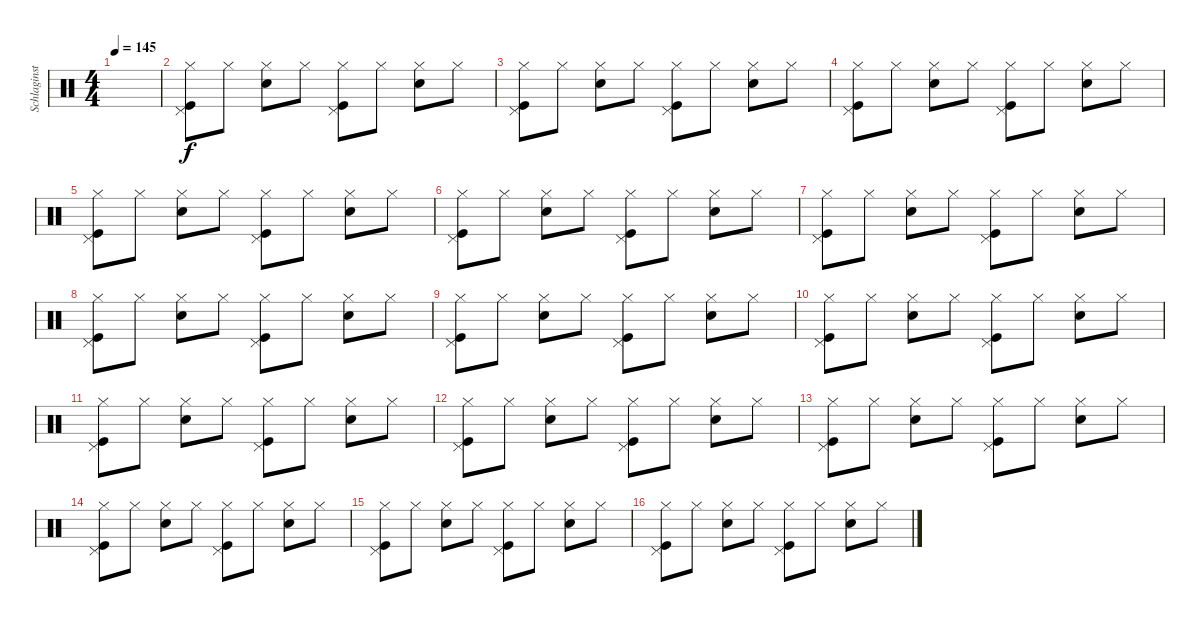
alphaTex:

\track ("Schlaginstrumente - Auswahl" "Schlaginst") {instrument percussion}
\staff {score}
\articulation defaults
\ts (4 4)
\tempo 145
\clef neutral
\ks c
|
("Kick (hit)" "Pedal Hi-Hat (hit)" "Hi-Hat (closed)").8 "Hi-Hat (closed)".8 ("Snare (hit) 2" "Hi-Hat (closed)").8 "Hi-Hat (closed)".8 ("Kick (hit)" "Pedal Hi-Hat (hit)" "Hi-Hat (closed)").8 "Hi-Hat (closed)".8 ("Snare (hit) 2" "Hi-Hat (closed)").8 "Hi-Hat (closed)".8 |
("Kick (hit)" "Pedal Hi-Hat (hit)" "Hi-Hat (closed)").8 "Hi-Hat (closed)".8 ("Snare (hit) 2" "Hi-Hat (closed)").8 "Hi-Hat (closed)".8 ("Kick (hit)" "Pedal Hi-Hat (hit)" "Hi-Hat (closed)").8 "Hi-Hat (closed)".8 ("Snare (hit) 2" "Hi-Hat (closed)").8 "Hi-Hat (closed)".8 |
("Kick (hit)" "Pedal Hi-Hat (hit)" "Hi-Hat (closed)").8 "Hi-Hat (closed)".8 ("Snare (hit) 2" "Hi-Hat (closed)").8 "Hi-Hat (closed)".8 ("Kick (hit)" "Pedal Hi-Hat (hit)" "Hi-Hat (closed)").8 "Hi-Hat (closed)".8 ("Snare (hit) 2" "Hi-Hat (closed)").8 "Hi-Hat (closed)".8 |
("Kick (hit)" "Pedal Hi-Hat (hit)" "Hi-Hat (closed)").8 "Hi-Hat (closed)".8 ("Snare (hit) 2" "Hi-Hat (closed)").8 "Hi-Hat (closed)".8 ("Kick (hit)" "Pedal Hi-Hat (hit)" "Hi-Hat (closed)").8 "Hi-Hat (closed)".8 ("Snare (hit) 2" "Hi-Hat (closed)").8 "Hi-Hat (closed)".8 |
("Kick (hit)" "Pedal Hi-Hat (hit)" "Hi-Hat (closed)").8 "Hi-Hat (closed)".8 ("Snare (hit) 2" "Hi-Hat (closed)").8 "Hi-Hat (closed)".8 ("Kick (hit)" "Pedal Hi-Hat (hit)" "Hi-Hat (closed)").8 "Hi-Hat (closed)".8 ("Snare (hit) 2" "Hi-Hat (closed)").8 "Hi-Hat (closed)".8 |
("Kick (hit)" "Pedal Hi-Hat (hit)" "Hi-Hat (closed)").8 "Hi-Hat (closed)".8 ("Snare (hit) 2" "Hi-Hat (closed)").8 "Hi-Hat (closed)".8 ("Kick (hit)" "Pedal Hi-Hat (hit)" "Hi-Hat (closed)").8 "Hi-Hat (closed)".8 ("Snare (hit) 2" "Hi-Hat (closed)").8 "Hi-Hat (closed)".8 |
("Kick (hit)" "Pedal Hi-Hat (hit)" "Hi-Hat (closed)").8 "Hi-Hat (closed)".8 ("Snare (hit) 2" "Hi-Hat (closed)").8 "Hi-Hat (closed)".8 ("Kick (hit)" "Pedal Hi-Hat (hit)" "Hi-Hat (closed)").8 "Hi-Hat (closed)".8 ("Snare (hit) 2" "Hi-Hat (closed)").8 "Hi-Hat (closed)".8 |
("Kick (hit)" "Pedal Hi-Hat (hit)" "Hi-Hat (closed)").8 "Hi-Hat (closed)".8 ("Snare (hit) 2" "Hi-Hat (closed)").8 "Hi-Hat (closed)".8 ("Kick (hit)" "Pedal Hi-Hat (hit)" "Hi-Hat (closed)").8 "Hi-Hat (closed)".8 ("Snare (hit) 2" "Hi-Hat (closed)").8 "Hi-Hat (closed)".8 |
("Kick (hit)" "Pedal Hi-Hat (hit)" "Hi-Hat (closed)").8 "Hi-Hat (closed)".8 ("Snare (hit) 2" "Hi-Hat (closed)").8 "Hi-Hat (closed)".8 ("Kick (hit)" "Pedal Hi-Hat (hit)" "Hi-Hat (closed)").8 "Hi-Hat (closed)".8 ("Snare (hit) 2" "Hi-Hat (closed)").8 "Hi-Hat (closed)".8 |
("Kick (hit)" "Pedal Hi-Hat (hit)" "Hi-Hat (closed)").8 "Hi-Hat (closed)".8 ("Snare (hit) 2" "Hi-Hat (closed)").8 "Hi-Hat (closed)".8 ("Kick (hit)" "Pedal Hi-Hat (hit)" "Hi-Hat (closed)").8 "Hi-Hat (closed)".8 ("Snare (hit) 2" "Hi-Hat (closed)").8 "Hi-Hat (closed)".8 |
("Kick (hit)" "Pedal Hi-Hat (hit)" "Hi-Hat (closed)").8 "Hi-Hat (closed)".8 ("Snare (hit) 2" "Hi-Hat (closed)").8 "Hi-Hat (closed)".8 ("Kick (hit)" "Pedal Hi-Hat (hit)" "Hi-Hat (closed)").8 "Hi-Hat (closed)".8 ("Snare (hit) 2" "Hi-Hat (closed)").8 "Hi-Hat (closed)".8 |
("Kick (hit)" "Pedal Hi-Hat (hit)" "Hi-Hat (closed)").8 "Hi-Hat (closed)".8 ("Snare (hit) 2" "Hi-Hat (closed)").8 "Hi-Hat (closed)".8 ("Kick (hit)" "Pedal Hi-Hat (hit)" "Hi-Hat (closed)").8 "Hi-Hat (closed)".8 ("Snare (hit) 2" "Hi-Hat (closed)").8 "Hi-Hat (closed)".8 |
("Kick (hit)" "Pedal Hi-Hat (hit)" "Hi-Hat (closed)").8 "Hi-Hat (closed)".8 ("Snare (hit) 2" "Hi-Hat (closed)").8 "Hi-Hat (closed)".8 ("Kick (hit)" "Pedal Hi-Hat (hit)" "Hi-Hat (closed)").8 "Hi-Hat (closed)".8 ("Snare (hit) 2" "Hi-Hat (closed)").8 "Hi-Hat (closed)".8 |
("Kick (hit)" "Pedal Hi-Hat (hit)" "Hi-Hat (closed)").8 "Hi-Hat (closed)".8 ("Snare (hit) 2" "Hi-Hat (closed)").8 "Hi-Hat (closed)".8 ("Kick (hit)" "Pedal Hi-Hat (hit)" "Hi-Hat (closed)").8 "Hi-Hat (closed)".8 ("Snare (hit) 2" "Hi-Hat (closed)").8 "Hi-Hat (closed)".8 |
("Kick (hit)" "Pedal Hi-Hat (hit)" "Hi-Hat (closed)").8 "Hi-Hat (closed)".8 ("Snare (hit) 2" "Hi-Hat (closed)").8 "Hi-Hat (closed)".8 ("Kick (hit)" "Pedal Hi-Hat (hit)" "Hi-Hat (closed)").8 "Hi-Hat (closed)".8 ("Snare (hit) 2" "Hi-Hat (closed)").8 "Hi-Hat (closed)".8
